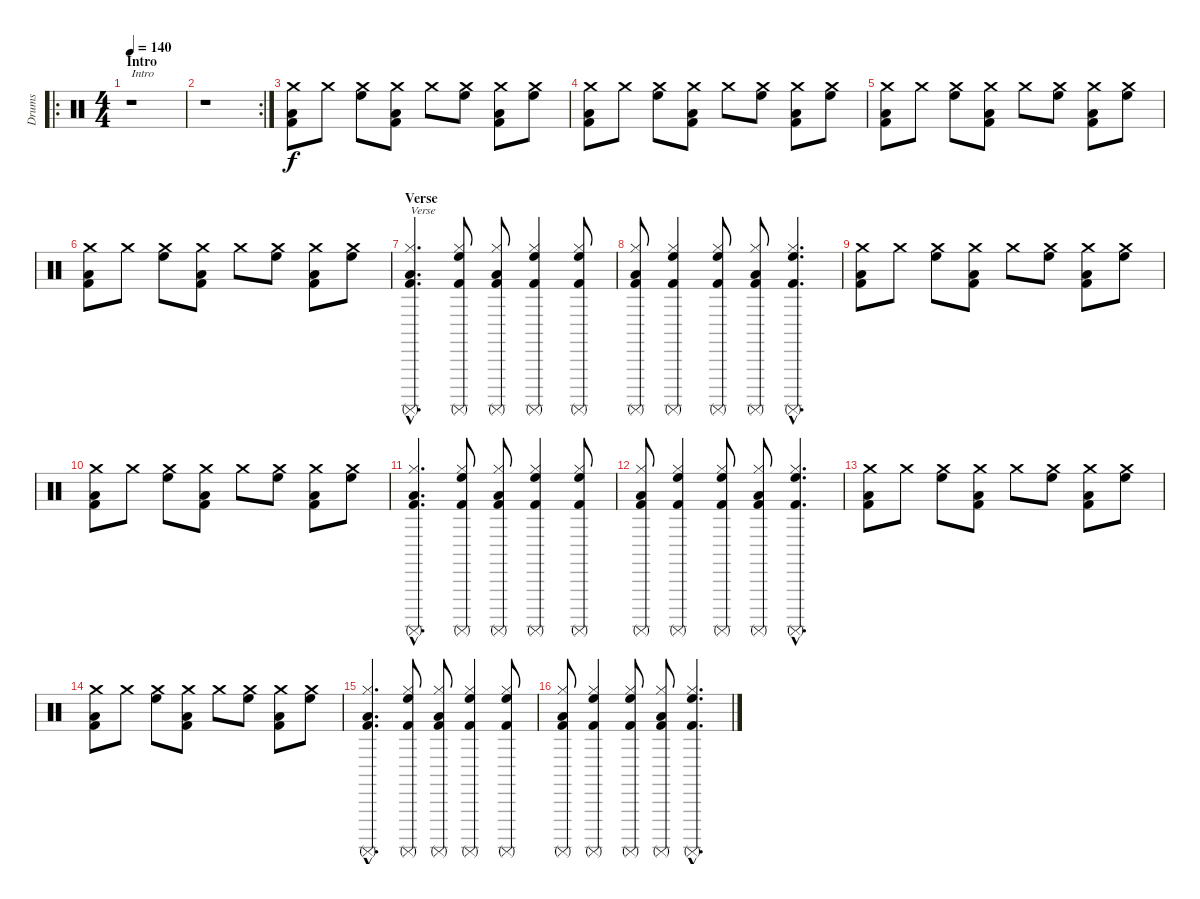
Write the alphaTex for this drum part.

\track ("Drums" "Drums") {instrument percussion}
\staff {score}
\articulation defaults
\ro
\ts (4 4)
\section ("" "Intro")
\tempo 140
\clef neutral
\ks c
r.1{txt "Intro" dy f} |
\rc 2
r.1 |
("Low Tom (hit)" "Crash medium (hit)" "Kick (hit) 2").8 "Crash medium (hit)".8 ("High Floor Tom (hit)" "Crash medium (hit)").8 ("Low Tom (hit)" "Crash medium (hit)" "Kick (hit) 2").8 "Crash medium (hit)".8 ("High Floor Tom (hit)" "Crash medium (hit)").8 ("Low Tom (hit)" "Crash medium (hit)" "Kick (hit) 2").8 ("High Floor Tom (hit)" "Crash medium (hit)").8 |
("Low Tom (hit)" "Crash medium (hit)" "Kick (hit) 2").8 "Crash medium (hit)".8 ("High Floor Tom (hit)" "Crash medium (hit)").8 ("Low Tom (hit)" "Crash medium (hit)" "Kick (hit) 2").8 "Crash medium (hit)".8 ("High Floor Tom (hit)" "Crash medium (hit)").8 ("Low Tom (hit)" "Crash medium (hit)" "Kick (hit) 2").8 ("High Floor Tom (hit)" "Crash medium (hit)").8 |
("Low Tom (hit)" "Crash medium (hit)" "Kick (hit) 2").8 "Crash medium (hit)".8 ("High Floor Tom (hit)" "Crash medium (hit)").8 ("Low Tom (hit)" "Crash medium (hit)" "Kick (hit) 2").8 "Crash medium (hit)".8 ("High Floor Tom (hit)" "Crash medium (hit)").8 ("Low Tom (hit)" "Crash medium (hit)" "Kick (hit) 2").8 ("High Floor Tom (hit)" "Crash medium (hit)").8 |
("Low Tom (hit)" "Crash medium (hit)" "Kick (hit) 2").8 "Crash medium (hit)".8 ("High Floor Tom (hit)" "Crash medium (hit)").8 ("Low Tom (hit)" "Crash medium (hit)" "Kick (hit) 2").8 "Crash medium (hit)".8 ("High Floor Tom (hit)" "Crash medium (hit)").8 ("Low Tom (hit)" "Crash medium (hit)" "Kick (hit) 2").8 ("High Floor Tom (hit)" "Crash medium (hit)").8 |
\section ("" "Verse")
("Low Tom (hit)"{hac} "Hi-Hat (closed)"{hac} "Kick (hit) 2"{hac} "Surdo (mute)"{hac}).4{d txt "Verse"} ("High Floor Tom (hit)" "Hi-Hat (closed)" "Kick (hit) 2" "Surdo (mute)").8 ("Low Tom (hit)" "Hi-Hat (closed)" "Kick (hit) 2" "Surdo (mute)").8 ("High Floor Tom (hit)" "Hi-Hat (closed)" "Kick (hit) 2" "Surdo (mute)").4 ("High Floor Tom (hit)" "Hi-Hat (closed)" "Kick (hit) 2" "Surdo (mute)").8 |
("Low Tom (hit)" "Hi-Hat (closed)" "Kick (hit) 2" "Surdo (mute)").8 ("High Floor Tom (hit)" "Hi-Hat (closed)" "Kick (hit) 2" "Surdo (mute)").4 ("High Floor Tom (hit)" "Hi-Hat (closed)" "Kick (hit) 2" "Surdo (mute)").8 ("Low Tom (hit)" "Hi-Hat (closed)" "Kick (hit) 2" "Surdo (mute)").8 ("High Floor Tom (hit)"{hac} "Hi-Hat (closed)"{hac} "Kick (hit) 2"{hac} "Surdo (mute)"{hac}).4{d} |
("Low Tom (hit)" "Crash medium (hit)" "Kick (hit) 2").8 "Crash medium (hit)".8 ("High Floor Tom (hit)" "Crash medium (hit)").8 ("Low Tom (hit)" "Crash medium (hit)" "Kick (hit) 2").8 "Crash medium (hit)".8 ("High Floor Tom (hit)" "Crash medium (hit)").8 ("Low Tom (hit)" "Crash medium (hit)" "Kick (hit) 2").8 ("High Floor Tom (hit)" "Crash medium (hit)").8 |
("Low Tom (hit)" "Crash medium (hit)" "Kick (hit) 2").8 "Crash medium (hit)".8 ("High Floor Tom (hit)" "Crash medium (hit)").8 ("Low Tom (hit)" "Crash medium (hit)" "Kick (hit) 2").8 "Crash medium (hit)".8 ("High Floor Tom (hit)" "Crash medium (hit)").8 ("Low Tom (hit)" "Crash medium (hit)" "Kick (hit) 2").8 ("High Floor Tom (hit)" "Crash medium (hit)").8 |
("Low Tom (hit)"{hac} "Hi-Hat (closed)"{hac} "Kick (hit) 2"{hac} "Surdo (mute)"{hac}).4{d} ("High Floor Tom (hit)" "Hi-Hat (closed)" "Kick (hit) 2" "Surdo (mute)").8 ("Low Tom (hit)" "Hi-Hat (closed)" "Kick (hit) 2" "Surdo (mute)").8 ("High Floor Tom (hit)" "Hi-Hat (closed)" "Kick (hit) 2" "Surdo (mute)").4 ("High Floor Tom (hit)" "Hi-Hat (closed)" "Kick (hit) 2" "Surdo (mute)").8 |
("Low Tom (hit)" "Hi-Hat (closed)" "Kick (hit) 2" "Surdo (mute)").8 ("High Floor Tom (hit)" "Hi-Hat (closed)" "Kick (hit) 2" "Surdo (mute)").4 ("High Floor Tom (hit)" "Hi-Hat (closed)" "Kick (hit) 2" "Surdo (mute)").8 ("Low Tom (hit)" "Hi-Hat (closed)" "Kick (hit) 2" "Surdo (mute)").8 ("High Floor Tom (hit)"{hac} "Hi-Hat (closed)"{hac} "Kick (hit) 2"{hac} "Surdo (mute)"{hac}).4{d} |
("Low Tom (hit)" "Crash medium (hit)" "Kick (hit) 2").8 "Crash medium (hit)".8 ("High Floor Tom (hit)" "Crash medium (hit)").8 ("Low Tom (hit)" "Crash medium (hit)" "Kick (hit) 2").8 "Crash medium (hit)".8 ("High Floor Tom (hit)" "Crash medium (hit)").8 ("Low Tom (hit)" "Crash medium (hit)" "Kick (hit) 2").8 ("High Floor Tom (hit)" "Crash medium (hit)").8 |
("Low Tom (hit)" "Crash medium (hit)" "Kick (hit) 2").8 "Crash medium (hit)".8 ("High Floor Tom (hit)" "Crash medium (hit)").8 ("Low Tom (hit)" "Crash medium (hit)" "Kick (hit) 2").8 "Crash medium (hit)".8 ("High Floor Tom (hit)" "Crash medium (hit)").8 ("Low Tom (hit)" "Crash medium (hit)" "Kick (hit) 2").8 ("High Floor Tom (hit)" "Crash medium (hit)").8 |
("Low Tom (hit)"{hac} "Hi-Hat (closed)"{hac} "Kick (hit) 2"{hac} "Surdo (mute)"{hac}).4{d} ("High Floor Tom (hit)" "Hi-Hat (closed)" "Kick (hit) 2" "Surdo (mute)").8 ("Low Tom (hit)" "Hi-Hat (closed)" "Kick (hit) 2" "Surdo (mute)").8 ("High Floor Tom (hit)" "Hi-Hat (closed)" "Kick (hit) 2" "Surdo (mute)").4 ("High Floor Tom (hit)" "Hi-Hat (closed)" "Kick (hit) 2" "Surdo (mute)").8 |
("Low Tom (hit)" "Hi-Hat (closed)" "Kick (hit) 2" "Surdo (mute)").8 ("High Floor Tom (hit)" "Hi-Hat (closed)" "Kick (hit) 2" "Surdo (mute)").4 ("High Floor Tom (hit)" "Hi-Hat (closed)" "Kick (hit) 2" "Surdo (mute)").8 ("Low Tom (hit)" "Hi-Hat (closed)" "Kick (hit) 2" "Surdo (mute)").8 ("High Floor Tom (hit)"{hac} "Hi-Hat (closed)"{hac} "Kick (hit) 2"{hac} "Surdo (mute)"{hac}).4{d}
